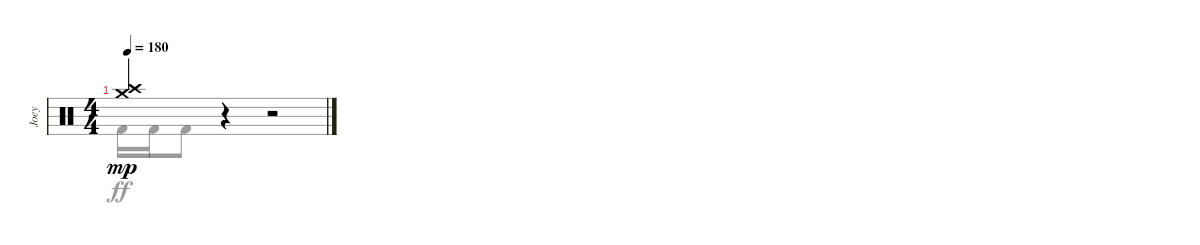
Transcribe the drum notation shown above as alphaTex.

\track ("Joey" "Joey") {instrument percussion}
\staff {score}
\articulation defaults
\voice
\ts (4 4)
\tempo 180
\clef neutral
\ks c
("Crash medium (hit)" "Crash high (hit)").4{dy mp} r.4 r.2
\voice
\clef neutral
\ottava regular
\simile none
\ks c "Kick (hit) 2".16{dy ff} "Kick (hit) 2".16 "Kick (hit) 2".8
r.4 r.2
